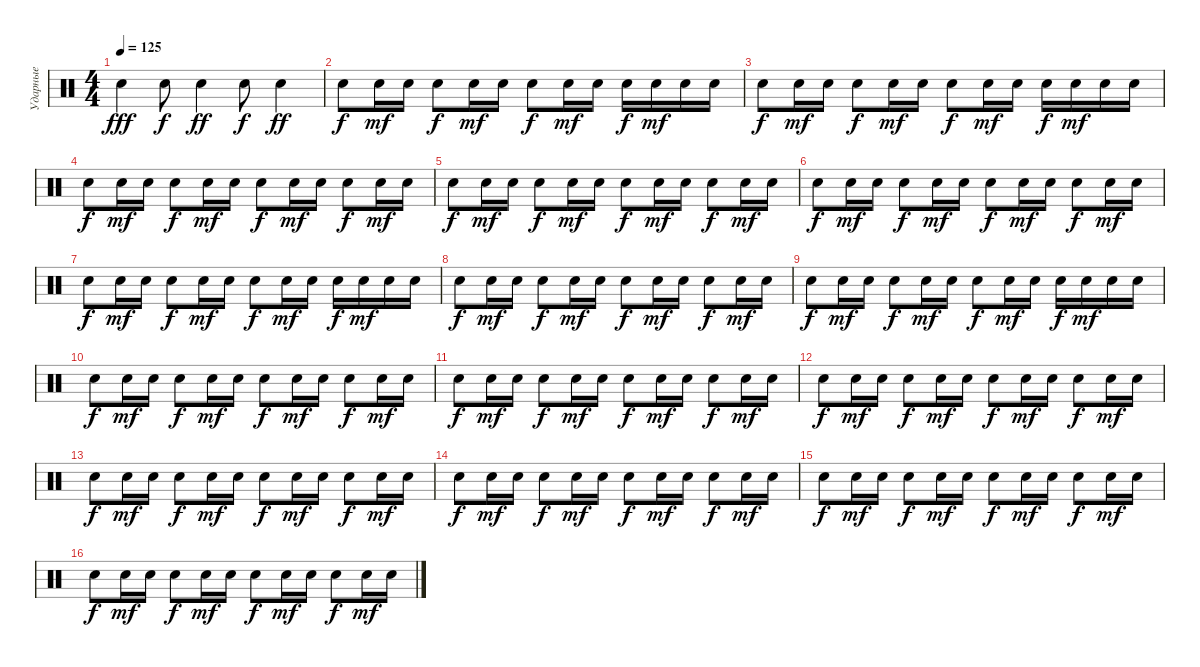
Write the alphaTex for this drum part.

\track ("Ударные" "Ударные") {instrument percussion}
\staff {score}
\articulation defaults
\ts (4 4)
\tempo 125
\clef neutral
\ks c "Electric Snare (hit)".4{dy fff} "Electric Snare (hit)".8{dy f} "Electric Snare (hit)".4{dy ff} "Electric Snare (hit)".8{dy f} "Electric Snare (hit)".4{dy ff}
|
"Electric Snare (hit)".8{dy f} "Electric Snare (hit)".16{dy mf} "Electric Snare (hit)".16 "Electric Snare (hit)".8{dy f} "Electric Snare (hit)".16{dy mf} "Electric Snare (hit)".16 "Electric Snare (hit)".8{dy f} "Electric Snare (hit)".16{dy mf} "Electric Snare (hit)".16 "Electric Snare (hit)".16{dy f} "Electric Snare (hit)".16{dy mf} "Electric Snare (hit)".16 "Electric Snare (hit)".16 |
"Electric Snare (hit)".8{dy f} "Electric Snare (hit)".16{dy mf} "Electric Snare (hit)".16 "Electric Snare (hit)".8{dy f} "Electric Snare (hit)".16{dy mf} "Electric Snare (hit)".16 "Electric Snare (hit)".8{dy f} "Electric Snare (hit)".16{dy mf} "Electric Snare (hit)".16 "Electric Snare (hit)".16{dy f} "Electric Snare (hit)".16{dy mf} "Electric Snare (hit)".16 "Electric Snare (hit)".16 |
"Electric Snare (hit)".8{dy f} "Electric Snare (hit)".16{dy mf} "Electric Snare (hit)".16 "Electric Snare (hit)".8{dy f} "Electric Snare (hit)".16{dy mf} "Electric Snare (hit)".16 "Electric Snare (hit)".8{dy f} "Electric Snare (hit)".16{dy mf} "Electric Snare (hit)".16 "Electric Snare (hit)".8{dy f} "Electric Snare (hit)".16{dy mf} "Electric Snare (hit)".16 |
"Electric Snare (hit)".8{dy f} "Electric Snare (hit)".16{dy mf} "Electric Snare (hit)".16 "Electric Snare (hit)".8{dy f} "Electric Snare (hit)".16{dy mf} "Electric Snare (hit)".16 "Electric Snare (hit)".8{dy f} "Electric Snare (hit)".16{dy mf} "Electric Snare (hit)".16 "Electric Snare (hit)".8{dy f} "Electric Snare (hit)".16{dy mf} "Electric Snare (hit)".16 |
"Electric Snare (hit)".8{dy f} "Electric Snare (hit)".16{dy mf} "Electric Snare (hit)".16 "Electric Snare (hit)".8{dy f} "Electric Snare (hit)".16{dy mf} "Electric Snare (hit)".16 "Electric Snare (hit)".8{dy f} "Electric Snare (hit)".16{dy mf} "Electric Snare (hit)".16 "Electric Snare (hit)".8{dy f} "Electric Snare (hit)".16{dy mf} "Electric Snare (hit)".16 |
"Electric Snare (hit)".8{dy f} "Electric Snare (hit)".16{dy mf} "Electric Snare (hit)".16 "Electric Snare (hit)".8{dy f} "Electric Snare (hit)".16{dy mf} "Electric Snare (hit)".16 "Electric Snare (hit)".8{dy f} "Electric Snare (hit)".16{dy mf} "Electric Snare (hit)".16 "Electric Snare (hit)".16{dy f} "Electric Snare (hit)".16{dy mf} "Electric Snare (hit)".16 "Electric Snare (hit)".16 |
"Electric Snare (hit)".8{dy f} "Electric Snare (hit)".16{dy mf} "Electric Snare (hit)".16 "Electric Snare (hit)".8{dy f} "Electric Snare (hit)".16{dy mf} "Electric Snare (hit)".16 "Electric Snare (hit)".8{dy f} "Electric Snare (hit)".16{dy mf} "Electric Snare (hit)".16 "Electric Snare (hit)".8{dy f} "Electric Snare (hit)".16{dy mf} "Electric Snare (hit)".16 |
"Electric Snare (hit)".8{dy f} "Electric Snare (hit)".16{dy mf} "Electric Snare (hit)".16 "Electric Snare (hit)".8{dy f} "Electric Snare (hit)".16{dy mf} "Electric Snare (hit)".16 "Electric Snare (hit)".8{dy f} "Electric Snare (hit)".16{dy mf} "Electric Snare (hit)".16 "Electric Snare (hit)".16{dy f} "Electric Snare (hit)".16{dy mf} "Electric Snare (hit)".16 "Electric Snare (hit)".16 |
"Electric Snare (hit)".8{dy f} "Electric Snare (hit)".16{dy mf} "Electric Snare (hit)".16 "Electric Snare (hit)".8{dy f} "Electric Snare (hit)".16{dy mf} "Electric Snare (hit)".16 "Electric Snare (hit)".8{dy f} "Electric Snare (hit)".16{dy mf} "Electric Snare (hit)".16 "Electric Snare (hit)".8{dy f} "Electric Snare (hit)".16{dy mf} "Electric Snare (hit)".16 |
"Electric Snare (hit)".8{dy f} "Electric Snare (hit)".16{dy mf} "Electric Snare (hit)".16 "Electric Snare (hit)".8{dy f} "Electric Snare (hit)".16{dy mf} "Electric Snare (hit)".16 "Electric Snare (hit)".8{dy f} "Electric Snare (hit)".16{dy mf} "Electric Snare (hit)".16 "Electric Snare (hit)".8{dy f} "Electric Snare (hit)".16{dy mf} "Electric Snare (hit)".16 |
"Electric Snare (hit)".8{dy f} "Electric Snare (hit)".16{dy mf} "Electric Snare (hit)".16 "Electric Snare (hit)".8{dy f} "Electric Snare (hit)".16{dy mf} "Electric Snare (hit)".16 "Electric Snare (hit)".8{dy f} "Electric Snare (hit)".16{dy mf} "Electric Snare (hit)".16 "Electric Snare (hit)".8{dy f} "Electric Snare (hit)".16{dy mf} "Electric Snare (hit)".16 |
"Electric Snare (hit)".8{dy f} "Electric Snare (hit)".16{dy mf} "Electric Snare (hit)".16 "Electric Snare (hit)".8{dy f} "Electric Snare (hit)".16{dy mf} "Electric Snare (hit)".16 "Electric Snare (hit)".8{dy f} "Electric Snare (hit)".16{dy mf} "Electric Snare (hit)".16 "Electric Snare (hit)".8{dy f} "Electric Snare (hit)".16{dy mf} "Electric Snare (hit)".16 |
"Electric Snare (hit)".8{dy f} "Electric Snare (hit)".16{dy mf} "Electric Snare (hit)".16 "Electric Snare (hit)".8{dy f} "Electric Snare (hit)".16{dy mf} "Electric Snare (hit)".16 "Electric Snare (hit)".8{dy f} "Electric Snare (hit)".16{dy mf} "Electric Snare (hit)".16 "Electric Snare (hit)".8{dy f} "Electric Snare (hit)".16{dy mf} "Electric Snare (hit)".16 |
"Electric Snare (hit)".8{dy f} "Electric Snare (hit)".16{dy mf} "Electric Snare (hit)".16 "Electric Snare (hit)".8{dy f} "Electric Snare (hit)".16{dy mf} "Electric Snare (hit)".16 "Electric Snare (hit)".8{dy f} "Electric Snare (hit)".16{dy mf} "Electric Snare (hit)".16 "Electric Snare (hit)".8{dy f} "Electric Snare (hit)".16{dy mf} "Electric Snare (hit)".16 |
"Electric Snare (hit)".8{dy f} "Electric Snare (hit)".16{dy mf} "Electric Snare (hit)".16 "Electric Snare (hit)".8{dy f} "Electric Snare (hit)".16{dy mf} "Electric Snare (hit)".16 "Electric Snare (hit)".8{dy f} "Electric Snare (hit)".16{dy mf} "Electric Snare (hit)".16 "Electric Snare (hit)".8{dy f} "Electric Snare (hit)".16{dy mf} "Electric Snare (hit)".16
